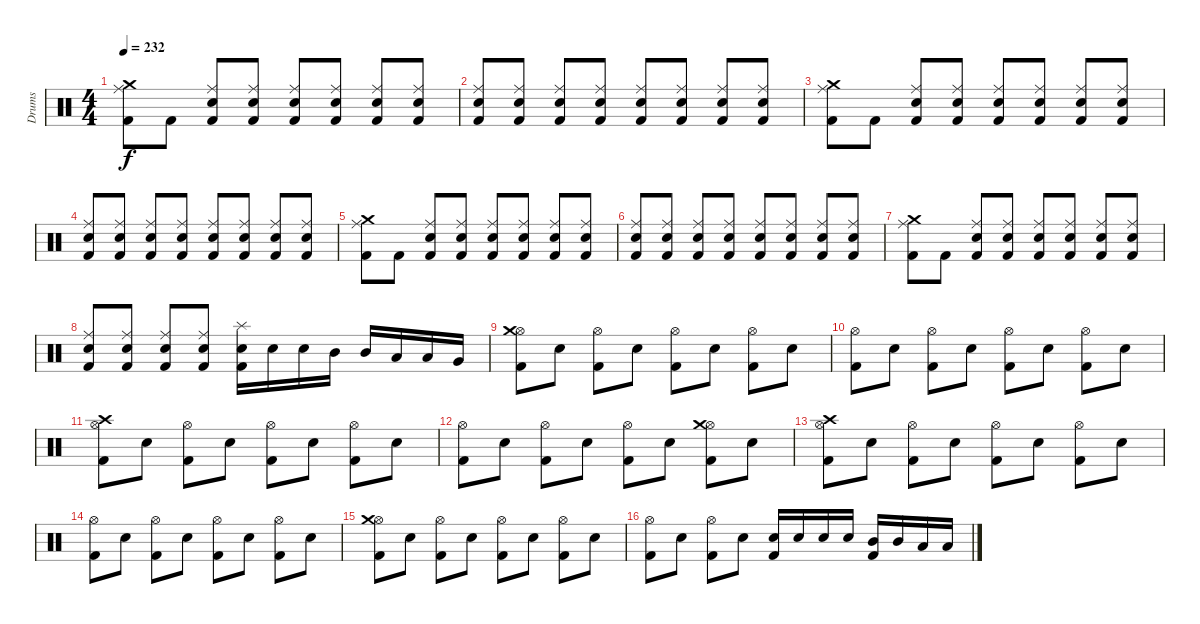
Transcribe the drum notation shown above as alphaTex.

\track ("Drums" "Drums") {instrument percussion}
\staff {score}
\articulation defaults
\ts (4 4)
\tempo 232
\clef neutral
\ks c
("Kick (hit) 2" "Ride (middle)" "Crash medium (hit)").8{dy f} "Kick (hit) 2".8 ("Kick (hit) 2" "Snare (hit) 2" "Ride (middle)").8 ("Kick (hit) 2" "Snare (hit) 2" "Ride (middle)").8 ("Kick (hit) 2" "Snare (hit) 2" "Ride (middle)").8 ("Kick (hit) 2" "Snare (hit) 2" "Ride (middle)").8 ("Kick (hit) 2" "Snare (hit) 2" "Ride (middle)").8 ("Kick (hit) 2" "Snare (hit) 2" "Ride (middle)").8 |
("Kick (hit) 2" "Snare (hit) 2" "Ride (middle)").8 ("Kick (hit) 2" "Snare (hit) 2" "Ride (middle)").8 ("Kick (hit) 2" "Snare (hit) 2" "Ride (middle)").8 ("Kick (hit) 2" "Snare (hit) 2" "Ride (middle)").8 ("Kick (hit) 2" "Snare (hit) 2" "Ride (middle)").8 ("Kick (hit) 2" "Snare (hit) 2" "Ride (middle)").8 ("Kick (hit) 2" "Snare (hit) 2" "Ride (middle)").8 ("Kick (hit) 2" "Snare (hit) 2" "Ride (middle)").8 |
("Kick (hit) 2" "Ride (middle)" "Crash medium (hit)").8 "Kick (hit) 2".8 ("Kick (hit) 2" "Snare (hit) 2" "Ride (middle)").8 ("Kick (hit) 2" "Snare (hit) 2" "Ride (middle)").8 ("Kick (hit) 2" "Snare (hit) 2" "Ride (middle)").8 ("Kick (hit) 2" "Snare (hit) 2" "Ride (middle)").8 ("Kick (hit) 2" "Snare (hit) 2" "Ride (middle)").8 ("Kick (hit) 2" "Snare (hit) 2" "Ride (middle)").8 |
("Kick (hit) 2" "Snare (hit) 2" "Ride (middle)").8 ("Kick (hit) 2" "Snare (hit) 2" "Ride (middle)").8 ("Kick (hit) 2" "Snare (hit) 2" "Ride (middle)").8 ("Kick (hit) 2" "Snare (hit) 2" "Ride (middle)").8 ("Kick (hit) 2" "Snare (hit) 2" "Ride (middle)").8 ("Kick (hit) 2" "Snare (hit) 2" "Ride (middle)").8 ("Kick (hit) 2" "Snare (hit) 2" "Ride (middle)").8 ("Kick (hit) 2" "Snare (hit) 2" "Ride (middle)").8 |
("Kick (hit) 2" "Ride (middle)" "Crash medium (hit)").8 "Kick (hit) 2".8 ("Kick (hit) 2" "Snare (hit) 2" "Ride (middle)").8 ("Kick (hit) 2" "Snare (hit) 2" "Ride (middle)").8 ("Kick (hit) 2" "Snare (hit) 2" "Ride (middle)").8 ("Kick (hit) 2" "Snare (hit) 2" "Ride (middle)").8 ("Kick (hit) 2" "Snare (hit) 2" "Ride (middle)").8 ("Kick (hit) 2" "Snare (hit) 2" "Ride (middle)").8 |
("Kick (hit) 2" "Snare (hit) 2" "Ride (middle)").8 ("Kick (hit) 2" "Snare (hit) 2" "Ride (middle)").8 ("Kick (hit) 2" "Snare (hit) 2" "Ride (middle)").8 ("Kick (hit) 2" "Snare (hit) 2" "Ride (middle)").8 ("Kick (hit) 2" "Snare (hit) 2" "Ride (middle)").8 ("Kick (hit) 2" "Snare (hit) 2" "Ride (middle)").8 ("Kick (hit) 2" "Snare (hit) 2" "Ride (middle)").8 ("Kick (hit) 2" "Snare (hit) 2" "Ride (middle)").8 |
("Kick (hit) 2" "Ride (middle)" "Crash medium (hit)").8 "Kick (hit) 2".8 ("Kick (hit) 2" "Snare (hit) 2" "Ride (middle)").8 ("Kick (hit) 2" "Snare (hit) 2" "Ride (middle)").8 ("Kick (hit) 2" "Snare (hit) 2" "Ride (middle)").8 ("Kick (hit) 2" "Snare (hit) 2" "Ride (middle)").8 ("Kick (hit) 2" "Snare (hit) 2" "Ride (middle)").8 ("Kick (hit) 2" "Snare (hit) 2" "Ride (middle)").8 |
("Kick (hit) 2" "Snare (hit) 2" "Ride (middle)").8 ("Kick (hit) 2" "Snare (hit) 2" "Ride (middle)").8 ("Kick (hit) 2" "Snare (hit) 2" "Ride (middle)").8 ("Kick (hit) 2" "Snare (hit) 2" "Ride (middle)").8 ("Kick (hit) 2" "Snare (hit) 2" "Splash (hit)").16 "Snare (hit) 2".16 "Snare (hit) 2".16 "Mid Tom (hit)".16 "Mid Tom (hit)".16 "Low Tom (hit)".16 "Low Tom (hit)".16 "Very Low Tom (hit)".16 |
("Kick (hit) 2" "Hi-Hat (open)" "Crash medium (hit)").8 "Snare (hit) 2".8 ("Kick (hit) 2" "Hi-Hat (open)").8 "Snare (hit) 2".8 ("Kick (hit) 2" "Hi-Hat (open)").8 "Snare (hit) 2".8 ("Kick (hit) 2" "Hi-Hat (open)").8 "Snare (hit) 2".8 |
("Kick (hit) 2" "Hi-Hat (open)").8 "Snare (hit) 2".8 ("Kick (hit) 2" "Hi-Hat (open)").8 "Snare (hit) 2".8 ("Kick (hit) 2" "Hi-Hat (open)").8 "Snare (hit) 2".8 ("Kick (hit) 2" "Hi-Hat (open)").8 "Snare (hit) 2".8 |
("Kick (hit) 2" "Hi-Hat (open)" "Crash high (hit)").8 "Snare (hit) 2".8 ("Kick (hit) 2" "Hi-Hat (open)").8 "Snare (hit) 2".8 ("Kick (hit) 2" "Hi-Hat (open)").8 "Snare (hit) 2".8 ("Kick (hit) 2" "Hi-Hat (open)").8 "Snare (hit) 2".8 |
("Kick (hit) 2" "Hi-Hat (open)").8 "Snare (hit) 2".8 ("Kick (hit) 2" "Hi-Hat (open)").8 "Snare (hit) 2".8 ("Kick (hit) 2" "Hi-Hat (open)").8 "Snare (hit) 2".8 ("Kick (hit) 2" "Hi-Hat (open)" "Crash medium (hit)").8 "Snare (hit) 2".8 |
("Kick (hit) 2" "Hi-Hat (open)" "Crash high (hit)").8 "Snare (hit) 2".8 ("Kick (hit) 2" "Hi-Hat (open)").8 "Snare (hit) 2".8 ("Kick (hit) 2" "Hi-Hat (open)").8 "Snare (hit) 2".8 ("Kick (hit) 2" "Hi-Hat (open)").8 "Snare (hit) 2".8 |
("Kick (hit) 2" "Hi-Hat (open)").8 "Snare (hit) 2".8 ("Kick (hit) 2" "Hi-Hat (open)").8 "Snare (hit) 2".8 ("Kick (hit) 2" "Hi-Hat (open)").8 "Snare (hit) 2".8 ("Kick (hit) 2" "Hi-Hat (open)").8 "Snare (hit) 2".8 |
("Kick (hit) 2" "Hi-Hat (open)" "Crash medium (hit)").8 "Snare (hit) 2".8 ("Kick (hit) 2" "Hi-Hat (open)").8 "Snare (hit) 2".8 ("Kick (hit) 2" "Hi-Hat (open)").8 "Snare (hit) 2".8 ("Kick (hit) 2" "Hi-Hat (open)").8 "Snare (hit) 2".8 |
("Kick (hit) 2" "Hi-Hat (open)").8 "Snare (hit) 2".8 ("Kick (hit) 2" "Hi-Hat (open)").8 "Snare (hit) 2".8 ("Kick (hit) 2" "Snare (hit) 2").16 "Snare (hit) 2".16 "Snare (hit) 2".16 "Snare (hit) 2".16 ("Kick (hit) 2" "Mid Tom (hit)").16 "Mid Tom (hit)".16 "Low Tom (hit)".16 "Low Tom (hit)".16
